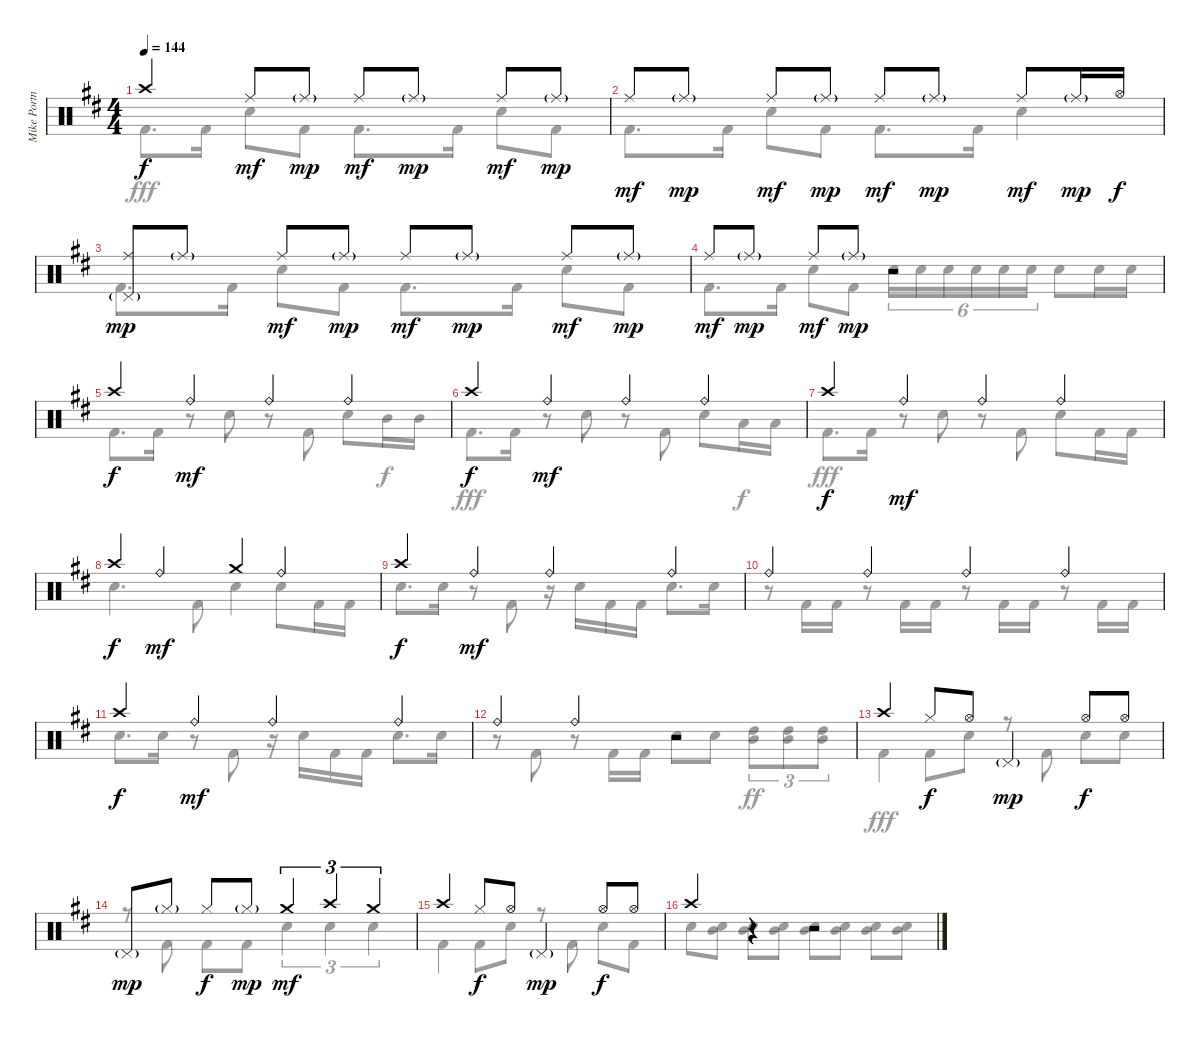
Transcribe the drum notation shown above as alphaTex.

\track ("Mike Portnoy Drums" "Mike Portn") {instrument percussion}
\staff {score}
\articulation defaults
\voice
\ts (4 4)
\tempo 144
\clef neutral
\ks bminor "Crash high (hit)".4{dy f} "Ride (middle)".8{dy mf} "Ride (middle)"{g}.8{dy mp} "Ride (middle)".8{dy mf} "Ride (middle)"{g}.8{dy mp} "Ride (middle)".8{dy mf} "Ride (middle)"{g}.8{dy mp}
|
"Ride (middle)".8{dy mf} "Ride (middle)"{g}.8{dy mp} "Ride (middle)".8{dy mf} "Ride (middle)"{g}.8{dy mp} "Ride (middle)".8{dy mf} "Ride (middle)"{g}.8{dy mp} "Ride (middle)".8{dy mf} "Ride (middle)"{g}.16{dy mp} "Hi-Hat (open)".16{dy f} |
("Ride (middle)" "Pedal Hi-Hat (hit)"{g}).8{dy mp} "Ride (middle)"{g}.8 "Ride (middle)".8{dy mf} "Ride (middle)"{g}.8{dy mp} "Ride (middle)".8{dy mf} "Ride (middle)"{g}.8{dy mp} "Ride (middle)".8{dy mf} "Ride (middle)"{g}.8{dy mp} |
"Ride (middle)".8{dy mf} "Ride (middle)"{g}.8{dy mp} "Ride (middle)".8{dy mf} "Ride (middle)"{g}.8{dy mp} r.2 |
"Crash high (hit)".4{dy f} "Ride (bell)".4{dy mf} "Ride (bell)".4 "Ride (bell)".4 |
"Crash high (hit)".4{dy f} "Ride (bell)".4{dy mf} "Ride (bell)".4 "Ride (bell)".4 |
"Crash high (hit)".4{dy f} "Ride (bell)".4{dy mf} "Ride (bell)".4 "Ride (bell)".4 |
"Crash high (hit)".4{dy f} "Ride (bell)".4{dy mf} "Crash medium (hit)".4 "Ride (bell)".4 |
"Crash high (hit)".4{dy f} "Ride (bell)".4{dy mf} "Ride (bell)".4 "Ride (bell)".4 |
"Ride (bell)".4 "Ride (bell)".4 "Ride (bell)".4 "Ride (bell)".4 |
"Crash high (hit)".4{dy f} "Ride (bell)".4{dy mf} "Ride (bell)".4 "Ride (bell)".4 |
"Ride (bell)".4 "Ride (bell)".4 r.2 |
"Crash high (hit)".4 "Hi-Hat (closed)".8{dy f} "Hi-Hat (open)".8 "Pedal Hi-Hat (hit)"{g}.4{dy mp} "Hi-Hat (open)".8{dy f} "Hi-Hat (open)".8 |
"Pedal Hi-Hat (hit)"{g}.8{dy mp} "Hi-Hat (closed)"{g}.8 "Hi-Hat (closed)".8{dy f} "Hi-Hat (closed)"{g}.8{dy mp} "Crash medium (hit)".4{tu (3 2) dy mf} "Crash high (hit)".4{tu (3 2)} "Crash medium (hit)".4{tu (3 2)} |
"Crash high (hit)".4 "Hi-Hat (closed)".8{dy f} "Hi-Hat (open)".8 "Pedal Hi-Hat (hit)"{g}.4{dy mp} "Hi-Hat (open)".8{dy f} "Hi-Hat (open)".8 |
"Crash high (hit)".4 r.4 r.2
\voice
\clef neutral
\ottava regular
\simile none
\ks bminor "Kick (hit) 2".8{d dy fff} "Kick (hit) 2".16 "Snare (hit) 2".8 "Kick (hit) 2".8 "Kick (hit) 2".8{d} "Kick (hit) 2".16 "Snare (hit) 2".8 "Kick (hit) 2".8
|
"Kick (hit) 2".8{d} "Kick (hit) 2".16 "Snare (hit) 2".8 "Kick (hit) 2".8 "Kick (hit) 2".8{d} "Kick (hit) 2".16 "Snare (hit) 2".4 |
"Kick (hit) 2".8{d} "Kick (hit) 2".16 "Snare (hit) 2".8 "Kick (hit) 2".8 "Kick (hit) 2".8{d} "Kick (hit) 2".16 "Snare (hit) 2".8 "Kick (hit) 2".8 |
"Kick (hit) 2".8{d} "Kick (hit) 2".16 "Snare (hit) 2".8 "Kick (hit) 2".8 "Snare (hit) 2".16{tu (6 4)} "Snare (hit) 2".16{tu (6 4)} "Snare (hit) 2".16{tu (6 4)} "Snare (hit) 2".16{tu (6 4)} "Snare (hit) 2".16{tu (6 4)} "Snare (hit) 2".16{tu (6 4)} "Snare (hit) 2".8 "Snare (hit) 2".16 "Snare (hit) 2".16 |
"Kick (hit) 2".8{d} "Kick (hit) 2".16 r.8 "Snare (hit) 2".8 r.8 "Kick (hit) 2".8 "Snare (hit) 2".8 "Mid Tom (hit)".16{dy f} "Mid Tom (hit)".16 |
"Kick (hit) 2".8{d dy fff} "Kick (hit) 2".16 r.8 "Snare (hit) 2".8 r.8 "Kick (hit) 2".8 "Snare (hit) 2".8 "Low Tom (hit)".16{dy f} "Low Tom (hit)".16 |
"Kick (hit) 2".8{d dy fff} "Kick (hit) 2".16 r.8 "Snare (hit) 2".8 r.8 "Kick (hit) 2".8 "Snare (hit) 2".8 "Kick (hit) 2".16 "Kick (hit) 2".16 |
"Snare (hit) 2".4{d} "Kick (hit) 2".8 "Snare (hit) 2".4 "Snare (hit) 2".8 "Kick (hit) 2".16 "Kick (hit) 2".16 |
"Snare (hit) 2".8{d} "Snare (hit) 2".16 r.8 "Kick (hit) 2".8 r.16 "Snare (hit) 2".16 "Kick (hit) 2".16 "Kick (hit) 2".16 "Snare (hit) 2".8{d} "Snare (hit) 2".16 |
r.8 "Kick (hit) 2".16 "Kick (hit) 2".16 r.8 "Kick (hit) 2".16 "Kick (hit) 2".16 r.8 "Kick (hit) 2".16 "Kick (hit) 2".16 r.8 "Kick (hit) 2".16 "Kick (hit) 2".16 |
"Snare (hit) 2".8{d} "Snare (hit) 2".16 r.8 "Kick (hit) 2".8 r.16 "Snare (hit) 2".16 "Kick (hit) 2".16 "Kick (hit) 2".16 "Snare (hit) 2".8{d} "Snare (hit) 2".16 |
r.8 "Kick (hit) 2".8 r.8 "Kick (hit) 2".16 "Kick (hit) 2".16 "Snare (hit) 2".8 "Snare (hit) 2".8 ("High Tom (hit)" "Mid Tom (hit)").8{tu (3 2) dy ff} ("High Tom (hit)" "Mid Tom (hit)").8{tu (3 2)} ("High Tom (hit)" "Mid Tom (hit)").8{tu (3 2)} |
"Kick (hit) 2".4{dy fff} "Kick (hit) 2".8 "Snare (hit) 2".8 r.8 "Kick (hit) 2".8 "Snare (hit) 2".8 "Snare (hit) 2".8 |
r.8 "Kick (hit) 2".8 "Kick (hit) 2".8 "Kick (hit) 2".8 "Snare (hit) 2".4{tu (3 2)} "Snare (hit) 2".4{tu (3 2)} "Snare (hit) 2".4{tu (3 2)} |
"Kick (hit) 2".4 "Kick (hit) 2".8 "Snare (hit) 2".8 r.8 "Kick (hit) 2".8 "Snare (hit) 2".8 "Kick (hit) 2".8 |
"Snare (hit) 2".8 ("Mid Tom (hit)" "Snare (hit) 2").8 ("Mid Tom (hit)" "Snare (hit) 2").8 ("Mid Tom (hit)" "Snare (hit) 2").8 ("Mid Tom (hit)" "Snare (hit) 2").8 ("Mid Tom (hit)" "Snare (hit) 2").8 ("Mid Tom (hit)" "Snare (hit) 2").8 ("Mid Tom (hit)" "Snare (hit) 2").8
